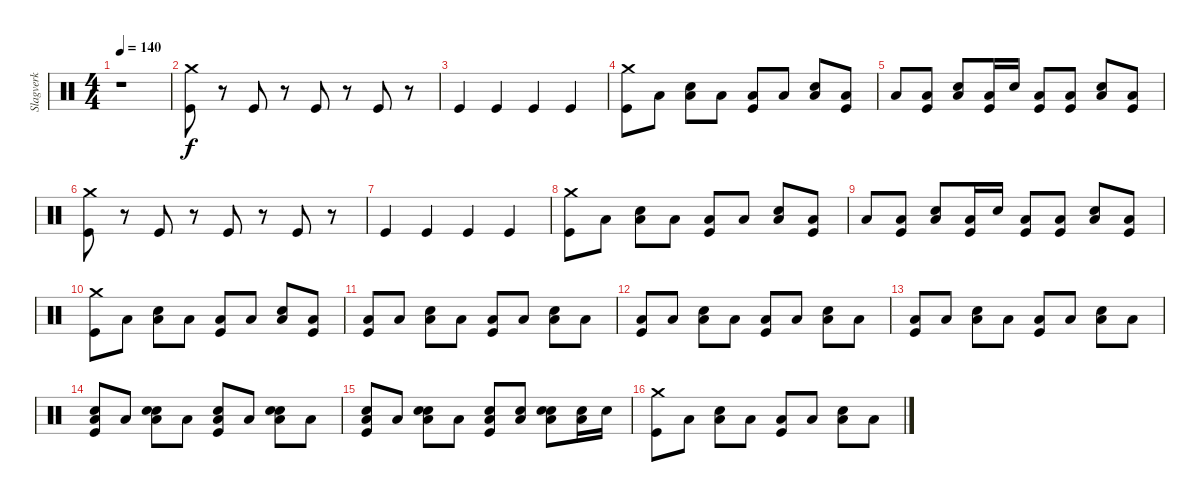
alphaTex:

\track ("Slagverk" "Slagverk") {instrument percussion}
\staff {score}
\articulation defaults
\ts (4 4)
\tempo 140
\clef neutral
\ks c
r.1{dy f} |
("Crash medium (hit)" "Kick (hit)").8 r.8 "Kick (hit)".8 r.8 "Kick (hit)".8 r.8 "Kick (hit)".8 r.8 |
"Kick (hit)".4 "Kick (hit)".4 "Kick (hit)".4 "Kick (hit)".4 |
("Crash medium (hit)" "Kick (hit)").8 "Low Floor Tom (hit)".8 ("Low Floor Tom (hit)" "Snare (hit) 2").8 "Low Floor Tom (hit)".8 ("Low Floor Tom (hit)" "Kick (hit)").8 "Low Floor Tom (hit)".8 ("Low Floor Tom (hit)" "Snare (hit) 2").8 ("Low Floor Tom (hit)" "Kick (hit)").8 |
"Low Floor Tom (hit)".8 ("Low Floor Tom (hit)" "Kick (hit)").8 ("Low Floor Tom (hit)" "Snare (hit) 2").8 ("Low Floor Tom (hit)" "Kick (hit)").16 "Snare (hit) 2".16 ("Low Floor Tom (hit)" "Kick (hit)").8 ("Low Floor Tom (hit)" "Kick (hit)").8 ("Low Floor Tom (hit)" "Snare (hit) 2").8 ("Low Floor Tom (hit)" "Kick (hit)").8 |
("Crash medium (hit)" "Kick (hit)").8 r.8 "Kick (hit)".8 r.8 "Kick (hit)".8 r.8 "Kick (hit)".8 r.8 |
"Kick (hit)".4 "Kick (hit)".4 "Kick (hit)".4 "Kick (hit)".4 |
("Crash medium (hit)" "Kick (hit)").8 "Low Floor Tom (hit)".8 ("Low Floor Tom (hit)" "Snare (hit) 2").8 "Low Floor Tom (hit)".8 ("Low Floor Tom (hit)" "Kick (hit)").8 "Low Floor Tom (hit)".8 ("Low Floor Tom (hit)" "Snare (hit) 2").8 ("Low Floor Tom (hit)" "Kick (hit)").8 |
"Low Floor Tom (hit)".8 ("Low Floor Tom (hit)" "Kick (hit)").8 ("Low Floor Tom (hit)" "Snare (hit) 2").8 ("Low Floor Tom (hit)" "Kick (hit)").16 "Snare (hit) 2".16 ("Low Floor Tom (hit)" "Kick (hit)").8 ("Low Floor Tom (hit)" "Kick (hit)").8 ("Low Floor Tom (hit)" "Snare (hit) 2").8 ("Low Floor Tom (hit)" "Kick (hit)").8 |
("Crash medium (hit)" "Kick (hit)").8 "Low Floor Tom (hit)".8 ("Low Floor Tom (hit)" "Snare (hit) 2").8 "Low Floor Tom (hit)".8 ("Low Floor Tom (hit)" "Kick (hit)").8 "Low Floor Tom (hit)".8 ("Low Floor Tom (hit)" "Snare (hit) 2").8 ("Low Floor Tom (hit)" "Kick (hit)").8 |
("Low Floor Tom (hit)" "Kick (hit)").8 "Low Floor Tom (hit)".8 ("Low Floor Tom (hit)" "Snare (hit) 2").8 "Low Floor Tom (hit)".8 ("Low Floor Tom (hit)" "Kick (hit)").8 "Low Floor Tom (hit)".8 ("Low Floor Tom (hit)" "Snare (hit) 2").8 "Low Floor Tom (hit)".8 |
("Low Floor Tom (hit)" "Kick (hit)").8 "Low Floor Tom (hit)".8 ("Low Floor Tom (hit)" "Snare (hit) 2").8 "Low Floor Tom (hit)".8 ("Low Floor Tom (hit)" "Kick (hit)").8 "Low Floor Tom (hit)".8 ("Low Floor Tom (hit)" "Snare (hit) 2").8 "Low Floor Tom (hit)".8 |
("Low Floor Tom (hit)" "Kick (hit)").8 "Low Floor Tom (hit)".8 ("Low Floor Tom (hit)" "Snare (hit) 2").8 "Low Floor Tom (hit)".8 ("Low Floor Tom (hit)" "Kick (hit)").8 "Low Floor Tom (hit)".8 ("Low Floor Tom (hit)" "Snare (hit) 2").8 "Low Floor Tom (hit)".8 |
("Low Floor Tom (hit)" "Electric Snare (hit)" "Kick (hit)").8 "Low Floor Tom (hit)".8 ("Low Floor Tom (hit)" "Snare (hit) 2" "Electric Snare (hit)").8 "Low Floor Tom (hit)".8 ("Low Floor Tom (hit)" "Electric Snare (hit)" "Kick (hit)").8 "Low Floor Tom (hit)".8 ("Low Floor Tom (hit)" "Snare (hit) 2" "Electric Snare (hit)").8 "Low Floor Tom (hit)".8 |
("Low Floor Tom (hit)" "Electric Snare (hit)" "Kick (hit)").8 "Low Floor Tom (hit)".8 ("Low Floor Tom (hit)" "Snare (hit) 2" "Electric Snare (hit)").8 "Low Floor Tom (hit)".8 ("Low Floor Tom (hit)" "Electric Snare (hit)" "Kick (hit)").8 ("Low Floor Tom (hit)" "Electric Snare (hit)").8 ("Low Floor Tom (hit)" "Snare (hit) 2" "Electric Snare (hit)").8 ("Low Floor Tom (hit)" "Electric Snare (hit)").16 "Electric Snare (hit)".16 |
("Crash medium (hit)" "Kick (hit)").8 "Low Floor Tom (hit)".8 ("Low Floor Tom (hit)" "Snare (hit) 2").8 "Low Floor Tom (hit)".8 ("Low Floor Tom (hit)" "Kick (hit)").8 "Low Floor Tom (hit)".8 ("Low Floor Tom (hit)" "Snare (hit) 2").8 "Low Floor Tom (hit)".8
